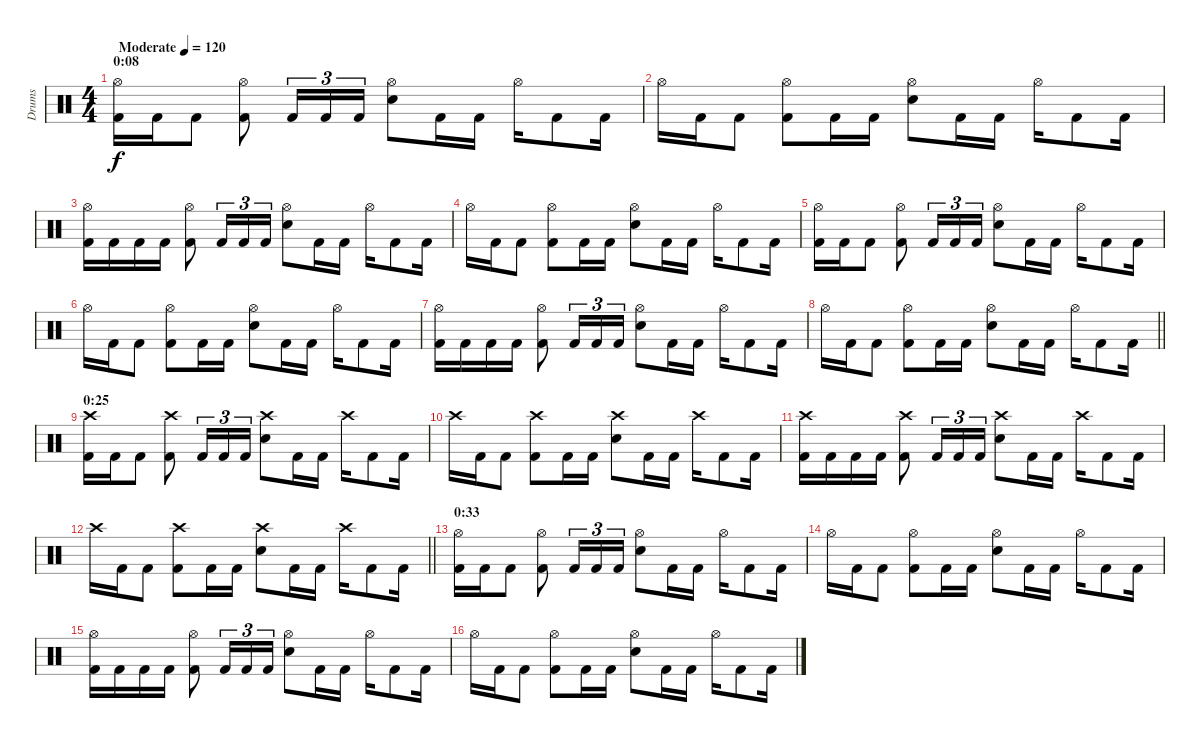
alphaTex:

\track ("Drums" "Drums") {instrument percussion}
\staff {score}
\articulation defaults
\ts (4 4)
\section ("" "0:08")
\tempo (120 "Moderate")
\clef neutral
\ks c
("Hi-Hat (open)" "Kick (hit) 2").16{dy f} "Kick (hit) 2".16 "Kick (hit) 2".8 ("Hi-Hat (open)" "Kick (hit) 2").8 "Kick (hit) 2".16{tu (3 2)} "Kick (hit) 2".16{tu (3 2)} "Kick (hit) 2".16{tu (3 2)} ("Hi-Hat (open)" "Electric Snare (hit)").8 "Kick (hit) 2".16 "Kick (hit) 2".16 "Hi-Hat (open)".16 "Kick (hit) 2".8 "Kick (hit) 2".16 |
"Hi-Hat (open)".16 "Kick (hit) 2".16 "Kick (hit) 2".8 ("Hi-Hat (open)" "Kick (hit) 2").8 "Kick (hit) 2".16 "Kick (hit) 2".16 ("Hi-Hat (open)" "Electric Snare (hit)").8 "Kick (hit) 2".16 "Kick (hit) 2".16 "Hi-Hat (open)".16 "Kick (hit) 2".8 "Kick (hit) 2".16 |
("Hi-Hat (open)" "Kick (hit) 2").16 "Kick (hit) 2".16 "Kick (hit) 2".16 "Kick (hit) 2".16 ("Hi-Hat (open)" "Kick (hit) 2").8 "Kick (hit) 2".16{tu (3 2)} "Kick (hit) 2".16{tu (3 2)} "Kick (hit) 2".16{tu (3 2)} ("Hi-Hat (open)" "Electric Snare (hit)").8 "Kick (hit) 2".16 "Kick (hit) 2".16 "Hi-Hat (open)".16 "Kick (hit) 2".8 "Kick (hit) 2".16 |
"Hi-Hat (open)".16 "Kick (hit) 2".16 "Kick (hit) 2".8 ("Hi-Hat (open)" "Kick (hit) 2").8 "Kick (hit) 2".16 "Kick (hit) 2".16 ("Hi-Hat (open)" "Electric Snare (hit)").8 "Kick (hit) 2".16 "Kick (hit) 2".16 "Hi-Hat (open)".16 "Kick (hit) 2".8 "Kick (hit) 2".16 |
("Hi-Hat (open)" "Kick (hit) 2").16 "Kick (hit) 2".16 "Kick (hit) 2".8 ("Hi-Hat (open)" "Kick (hit) 2").8 "Kick (hit) 2".16{tu (3 2)} "Kick (hit) 2".16{tu (3 2)} "Kick (hit) 2".16{tu (3 2)} ("Hi-Hat (open)" "Electric Snare (hit)").8 "Kick (hit) 2".16 "Kick (hit) 2".16 "Hi-Hat (open)".16 "Kick (hit) 2".8 "Kick (hit) 2".16 |
"Hi-Hat (open)".16 "Kick (hit) 2".16 "Kick (hit) 2".8 ("Hi-Hat (open)" "Kick (hit) 2").8 "Kick (hit) 2".16 "Kick (hit) 2".16 ("Hi-Hat (open)" "Electric Snare (hit)").8 "Kick (hit) 2".16 "Kick (hit) 2".16 "Hi-Hat (open)".16 "Kick (hit) 2".8 "Kick (hit) 2".16 |
("Hi-Hat (open)" "Kick (hit) 2").16 "Kick (hit) 2".16 "Kick (hit) 2".16 "Kick (hit) 2".16 ("Hi-Hat (open)" "Kick (hit) 2").8 "Kick (hit) 2".16{tu (3 2)} "Kick (hit) 2".16{tu (3 2)} "Kick (hit) 2".16{tu (3 2)} ("Hi-Hat (open)" "Electric Snare (hit)").8 "Kick (hit) 2".16 "Kick (hit) 2".16 "Hi-Hat (open)".16 "Kick (hit) 2".8 "Kick (hit) 2".16 |
\barLineRight lightlight "Hi-Hat (open)".16 "Kick (hit) 2".16 "Kick (hit) 2".8
("Hi-Hat (open)" "Kick (hit) 2").8 "Kick (hit) 2".16 "Kick (hit) 2".16 ("Hi-Hat (open)" "Electric Snare (hit)").8 "Kick (hit) 2".16 "Kick (hit) 2".16 "Hi-Hat (open)".16 "Kick (hit) 2".8 "Kick (hit) 2".16 |
\section ("" "0:25")
("Crash high (hit)" "Kick (hit) 2").16 "Kick (hit) 2".16 "Kick (hit) 2".8 ("Crash high (hit)" "Kick (hit) 2").8 "Kick (hit) 2".16{tu (3 2)} "Kick (hit) 2".16{tu (3 2)} "Kick (hit) 2".16{tu (3 2)} ("Crash high (hit)" "Electric Snare (hit)").8 "Kick (hit) 2".16 "Kick (hit) 2".16 "Crash high (hit)".16 "Kick (hit) 2".8 "Kick (hit) 2".16 |
"Crash high (hit)".16 "Kick (hit) 2".16 "Kick (hit) 2".8 ("Crash high (hit)" "Kick (hit) 2").8 "Kick (hit) 2".16 "Kick (hit) 2".16 ("Crash high (hit)" "Electric Snare (hit)").8 "Kick (hit) 2".16 "Kick (hit) 2".16 "Crash high (hit)".16 "Kick (hit) 2".8 "Kick (hit) 2".16 |
("Crash high (hit)" "Kick (hit) 2").16 "Kick (hit) 2".16 "Kick (hit) 2".16 "Kick (hit) 2".16 ("Crash high (hit)" "Kick (hit) 2").8 "Kick (hit) 2".16{tu (3 2)} "Kick (hit) 2".16{tu (3 2)} "Kick (hit) 2".16{tu (3 2)} ("Crash high (hit)" "Electric Snare (hit)").8 "Kick (hit) 2".16 "Kick (hit) 2".16 "Crash high (hit)".16 "Kick (hit) 2".8 "Kick (hit) 2".16 |
\barLineRight lightlight "Crash high (hit)".16 "Kick (hit) 2".16 "Kick (hit) 2".8
("Crash high (hit)" "Kick (hit) 2").8 "Kick (hit) 2".16 "Kick (hit) 2".16 ("Crash high (hit)" "Electric Snare (hit)").8 "Kick (hit) 2".16 "Kick (hit) 2".16 "Crash high (hit)".16 "Kick (hit) 2".8 "Kick (hit) 2".16 |
\section ("" "0:33")
("Hi-Hat (open)" "Kick (hit) 2").16 "Kick (hit) 2".16 "Kick (hit) 2".8 ("Hi-Hat (open)" "Kick (hit) 2").8 "Kick (hit) 2".16{tu (3 2)} "Kick (hit) 2".16{tu (3 2)} "Kick (hit) 2".16{tu (3 2)} ("Hi-Hat (open)" "Electric Snare (hit)").8 "Kick (hit) 2".16 "Kick (hit) 2".16 "Hi-Hat (open)".16 "Kick (hit) 2".8 "Kick (hit) 2".16 |
"Hi-Hat (open)".16 "Kick (hit) 2".16 "Kick (hit) 2".8 ("Hi-Hat (open)" "Kick (hit) 2").8 "Kick (hit) 2".16 "Kick (hit) 2".16 ("Hi-Hat (open)" "Electric Snare (hit)").8 "Kick (hit) 2".16 "Kick (hit) 2".16 "Hi-Hat (open)".16 "Kick (hit) 2".8 "Kick (hit) 2".16 |
("Hi-Hat (open)" "Kick (hit) 2").16 "Kick (hit) 2".16 "Kick (hit) 2".16 "Kick (hit) 2".16 ("Hi-Hat (open)" "Kick (hit) 2").8 "Kick (hit) 2".16{tu (3 2)} "Kick (hit) 2".16{tu (3 2)} "Kick (hit) 2".16{tu (3 2)} ("Hi-Hat (open)" "Electric Snare (hit)").8 "Kick (hit) 2".16 "Kick (hit) 2".16 "Hi-Hat (open)".16 "Kick (hit) 2".8 "Kick (hit) 2".16 |
"Hi-Hat (open)".16 "Kick (hit) 2".16 "Kick (hit) 2".8 ("Hi-Hat (open)" "Kick (hit) 2").8 "Kick (hit) 2".16 "Kick (hit) 2".16 ("Hi-Hat (open)" "Electric Snare (hit)").8 "Kick (hit) 2".16 "Kick (hit) 2".16 "Hi-Hat (open)".16 "Kick (hit) 2".8 "Kick (hit) 2".16
